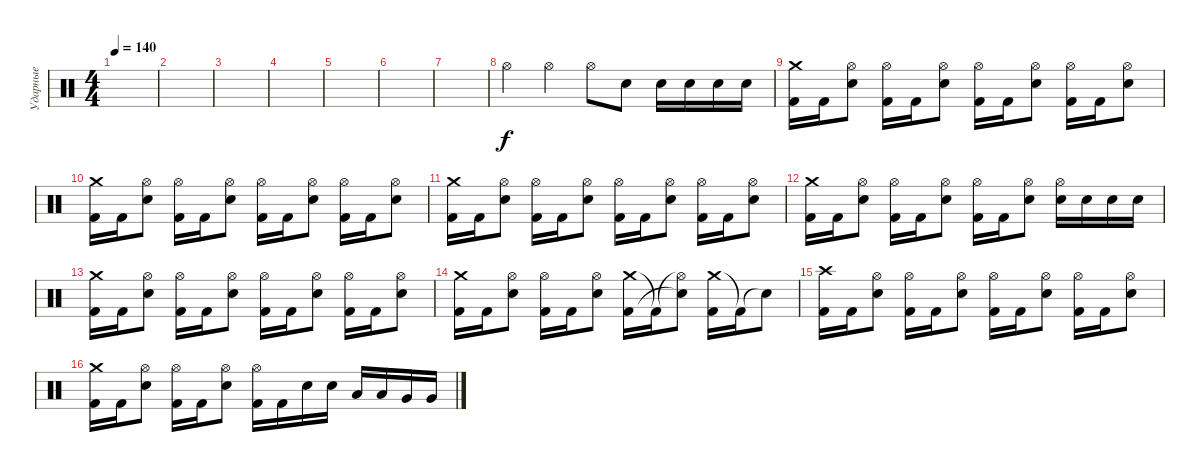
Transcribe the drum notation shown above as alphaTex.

\track ("Ударные" "Ударные") {instrument percussion}
\staff {score}
\articulation defaults
\ts (4 4)
\tempo 140
\clef neutral
\ks c
|
|
|
|
|
|
|
"Hi-Hat (open)".4 "Hi-Hat (open)".4 "Hi-Hat (open)".8 "Snare (hit) 2".8 "Snare (hit) 2".16 "Snare (hit) 2".16 "Snare (hit) 2".16 "Snare (hit) 2".16 |
("Crash medium (hit)" "Kick (hit) 2").16 "Kick (hit) 2".16 ("Hi-Hat (open)" "Snare (hit) 2").8 ("Hi-Hat (open)" "Kick (hit) 2").16 "Kick (hit) 2".16 ("Hi-Hat (open)" "Snare (hit) 2").8 ("Hi-Hat (open)" "Kick (hit) 2").16 "Kick (hit) 2".16 ("Hi-Hat (open)" "Snare (hit) 2").8 ("Hi-Hat (open)" "Kick (hit) 2").16 "Kick (hit) 2".16 ("Hi-Hat (open)" "Snare (hit) 2").8 |
("Crash medium (hit)" "Kick (hit) 2").16 "Kick (hit) 2".16 ("Hi-Hat (open)" "Snare (hit) 2").8 ("Hi-Hat (open)" "Kick (hit) 2").16 "Kick (hit) 2".16 ("Hi-Hat (open)" "Snare (hit) 2").8 ("Hi-Hat (open)" "Kick (hit) 2").16 "Kick (hit) 2".16 ("Hi-Hat (open)" "Snare (hit) 2").8 ("Hi-Hat (open)" "Kick (hit) 2").16 "Kick (hit) 2".16 ("Hi-Hat (open)" "Snare (hit) 2").8 |
("Crash medium (hit)" "Kick (hit) 2").16 "Kick (hit) 2".16 ("Hi-Hat (open)" "Snare (hit) 2").8 ("Hi-Hat (open)" "Kick (hit) 2").16 "Kick (hit) 2".16 ("Hi-Hat (open)" "Snare (hit) 2").8 ("Hi-Hat (open)" "Kick (hit) 2").16 "Kick (hit) 2".16 ("Hi-Hat (open)" "Snare (hit) 2").8 ("Hi-Hat (open)" "Kick (hit) 2").16 "Kick (hit) 2".16 ("Hi-Hat (open)" "Snare (hit) 2").8 |
("Crash medium (hit)" "Kick (hit) 2").16 "Kick (hit) 2".16 ("Hi-Hat (open)" "Snare (hit) 2").8 ("Hi-Hat (open)" "Kick (hit) 2").16 "Kick (hit) 2".16 ("Hi-Hat (open)" "Snare (hit) 2").8 ("Hi-Hat (open)" "Kick (hit) 2").16 "Kick (hit) 2".16 ("Hi-Hat (open)" "Snare (hit) 2").8 ("Hi-Hat (open)" "Snare (hit) 2").16 "Snare (hit) 2".16 "Snare (hit) 2".16 "Snare (hit) 2".16 |
("Crash medium (hit)" "Kick (hit) 2").16 "Kick (hit) 2".16 ("Hi-Hat (open)" "Snare (hit) 2").8 ("Hi-Hat (open)" "Kick (hit) 2").16 "Kick (hit) 2".16 ("Hi-Hat (open)" "Snare (hit) 2").8 ("Hi-Hat (open)" "Kick (hit) 2").16 "Kick (hit) 2".16 ("Hi-Hat (open)" "Snare (hit) 2").8 ("Hi-Hat (open)" "Kick (hit) 2").16 "Kick (hit) 2".16 ("Hi-Hat (open)" "Snare (hit) 2").8 |
("Crash medium (hit)" "Kick (hit) 2").16 "Kick (hit) 2".16 ("Hi-Hat (open)" "Snare (hit) 2").8 ("Hi-Hat (open)" "Kick (hit) 2").16 "Kick (hit) 2".16 ("Hi-Hat (open)" "Snare (hit) 2").8 ("Crash medium (hit)" "Kick (hit) 2").16 "Kick (hit) 2"{t}.16 ("Hi-Hat (open)"{t} "Snare (hit) 2"{t}).8 ("Crash medium (hit)" "Kick (hit) 2").16 "Kick (hit) 2"{t}.16 "Snare (hit) 2"{t}.8 |
("Crash high (hit)" "Kick (hit) 2").16 "Kick (hit) 2".16 ("Hi-Hat (open)" "Snare (hit) 2").8 ("Hi-Hat (open)" "Kick (hit) 2").16 "Kick (hit) 2".16 ("Hi-Hat (open)" "Snare (hit) 2").8 ("Hi-Hat (open)" "Kick (hit) 2").16 "Kick (hit) 2".16 ("Hi-Hat (open)" "Snare (hit) 2").8 ("Hi-Hat (open)" "Kick (hit) 2").16 "Kick (hit) 2".16 ("Hi-Hat (open)" "Snare (hit) 2").8 |
("Crash medium (hit)" "Kick (hit) 2").16 "Kick (hit) 2".16 ("Hi-Hat (open)" "Snare (hit) 2").8 ("Hi-Hat (open)" "Kick (hit) 2").16 "Kick (hit) 2".16 ("Hi-Hat (open)" "Snare (hit) 2").8 ("Hi-Hat (open)" "Kick (hit) 2").16 "Kick (hit) 2".16 "Snare (hit) 2".16 "Snare (hit) 2".16 "Low Tom (hit)".16 "Low Tom (hit)".16 "Very Low Tom (hit)".16 "Very Low Tom (hit)".16
